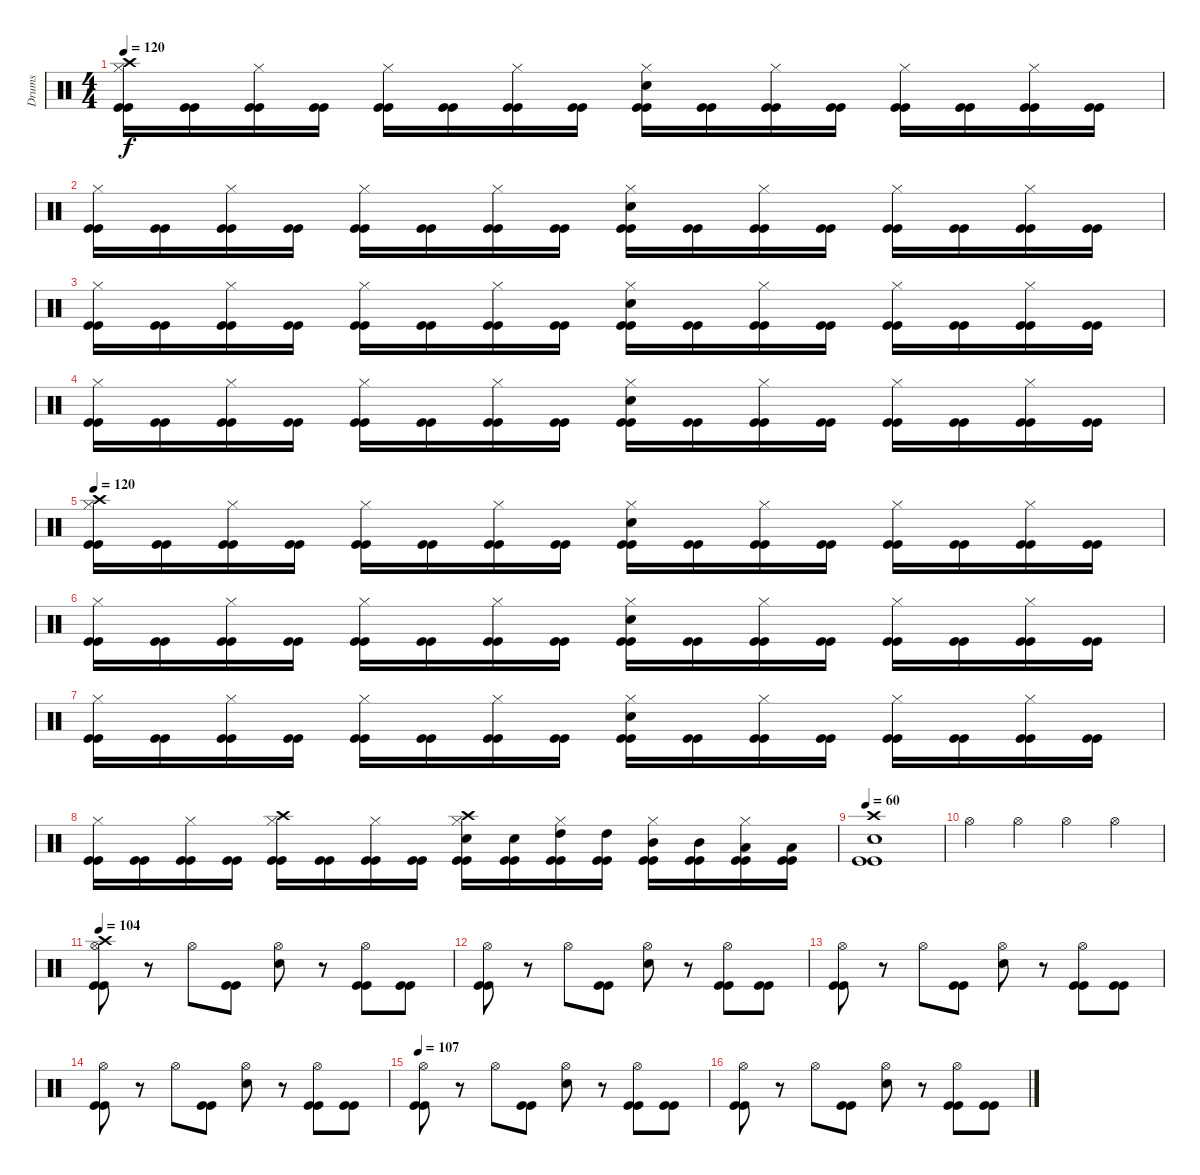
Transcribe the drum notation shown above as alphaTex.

\track ("Drums" "Drums") {instrument percussion}
\staff {score}
\articulation defaults
\ts (4 4)
\tempo 120
\clef neutral
\ks c
("Crash high (hit)" "Hi-Hat (closed)" "Kick (hit)" "Kick (hit)").16{dy f} ("Kick (hit)" "Kick (hit)").16 ("Hi-Hat (closed)" "Kick (hit)" "Kick (hit)").16 ("Kick (hit)" "Kick (hit)").16 ("Hi-Hat (closed)" "Kick (hit)" "Kick (hit)").16 ("Kick (hit)" "Kick (hit)").16 ("Hi-Hat (closed)" "Kick (hit)" "Kick (hit)").16 ("Kick (hit)" "Kick (hit)").16 ("Snare (hit) 2" "Hi-Hat (closed)" "Kick (hit)" "Kick (hit)").16 ("Kick (hit)" "Kick (hit)").16 ("Hi-Hat (closed)" "Kick (hit)" "Kick (hit)").16 ("Kick (hit)" "Kick (hit)").16 ("Hi-Hat (closed)" "Kick (hit)" "Kick (hit)").16 ("Kick (hit)" "Kick (hit)").16 ("Hi-Hat (closed)" "Kick (hit)" "Kick (hit)").16 ("Kick (hit)" "Kick (hit)").16 |
("Hi-Hat (closed)" "Kick (hit)" "Kick (hit)").16 ("Kick (hit)" "Kick (hit)").16 ("Hi-Hat (closed)" "Kick (hit)" "Kick (hit)").16 ("Kick (hit)" "Kick (hit)").16 ("Hi-Hat (closed)" "Kick (hit)" "Kick (hit)").16 ("Kick (hit)" "Kick (hit)").16 ("Hi-Hat (closed)" "Kick (hit)" "Kick (hit)").16 ("Kick (hit)" "Kick (hit)").16 ("Snare (hit) 2" "Hi-Hat (closed)" "Kick (hit)" "Kick (hit)").16 ("Kick (hit)" "Kick (hit)").16 ("Hi-Hat (closed)" "Kick (hit)" "Kick (hit)").16 ("Kick (hit)" "Kick (hit)").16 ("Hi-Hat (closed)" "Kick (hit)" "Kick (hit)").16 ("Kick (hit)" "Kick (hit)").16 ("Hi-Hat (closed)" "Kick (hit)" "Kick (hit)").16 ("Kick (hit)" "Kick (hit)").16 |
("Hi-Hat (closed)" "Kick (hit)" "Kick (hit)").16 ("Kick (hit)" "Kick (hit)").16 ("Hi-Hat (closed)" "Kick (hit)" "Kick (hit)").16 ("Kick (hit)" "Kick (hit)").16 ("Hi-Hat (closed)" "Kick (hit)" "Kick (hit)").16 ("Kick (hit)" "Kick (hit)").16 ("Hi-Hat (closed)" "Kick (hit)" "Kick (hit)").16 ("Kick (hit)" "Kick (hit)").16 ("Snare (hit) 2" "Hi-Hat (closed)" "Kick (hit)" "Kick (hit)").16 ("Kick (hit)" "Kick (hit)").16 ("Hi-Hat (closed)" "Kick (hit)" "Kick (hit)").16 ("Kick (hit)" "Kick (hit)").16 ("Hi-Hat (closed)" "Kick (hit)" "Kick (hit)").16 ("Kick (hit)" "Kick (hit)").16 ("Hi-Hat (closed)" "Kick (hit)" "Kick (hit)").16 ("Kick (hit)" "Kick (hit)").16 |
("Hi-Hat (closed)" "Kick (hit)" "Kick (hit)").16 ("Kick (hit)" "Kick (hit)").16 ("Hi-Hat (closed)" "Kick (hit)" "Kick (hit)").16 ("Kick (hit)" "Kick (hit)").16 ("Hi-Hat (closed)" "Kick (hit)" "Kick (hit)").16 ("Kick (hit)" "Kick (hit)").16 ("Hi-Hat (closed)" "Kick (hit)" "Kick (hit)").16 ("Kick (hit)" "Kick (hit)").16 ("Snare (hit) 2" "Hi-Hat (closed)" "Kick (hit)" "Kick (hit)").16 ("Kick (hit)" "Kick (hit)").16 ("Hi-Hat (closed)" "Kick (hit)" "Kick (hit)").16 ("Kick (hit)" "Kick (hit)").16 ("Hi-Hat (closed)" "Kick (hit)" "Kick (hit)").16 ("Kick (hit)" "Kick (hit)").16 ("Hi-Hat (closed)" "Kick (hit)" "Kick (hit)").16 ("Kick (hit)" "Kick (hit)").16 |
\tempo 120
("Crash high (hit)" "Hi-Hat (closed)" "Kick (hit)" "Kick (hit)").16 ("Kick (hit)" "Kick (hit)").16 ("Hi-Hat (closed)" "Kick (hit)" "Kick (hit)").16 ("Kick (hit)" "Kick (hit)").16 ("Hi-Hat (closed)" "Kick (hit)" "Kick (hit)").16 ("Kick (hit)" "Kick (hit)").16 ("Hi-Hat (closed)" "Kick (hit)" "Kick (hit)").16 ("Kick (hit)" "Kick (hit)").16 ("Snare (hit) 2" "Hi-Hat (closed)" "Kick (hit)" "Kick (hit)").16 ("Kick (hit)" "Kick (hit)").16 ("Hi-Hat (closed)" "Kick (hit)" "Kick (hit)").16 ("Kick (hit)" "Kick (hit)").16 ("Hi-Hat (closed)" "Kick (hit)" "Kick (hit)").16 ("Kick (hit)" "Kick (hit)").16 ("Hi-Hat (closed)" "Kick (hit)" "Kick (hit)").16 ("Kick (hit)" "Kick (hit)").16 |
("Hi-Hat (closed)" "Kick (hit)" "Kick (hit)").16 ("Kick (hit)" "Kick (hit)").16 ("Hi-Hat (closed)" "Kick (hit)" "Kick (hit)").16 ("Kick (hit)" "Kick (hit)").16 ("Hi-Hat (closed)" "Kick (hit)" "Kick (hit)").16 ("Kick (hit)" "Kick (hit)").16 ("Hi-Hat (closed)" "Kick (hit)" "Kick (hit)").16 ("Kick (hit)" "Kick (hit)").16 ("Snare (hit) 2" "Hi-Hat (closed)" "Kick (hit)" "Kick (hit)").16 ("Kick (hit)" "Kick (hit)").16 ("Hi-Hat (closed)" "Kick (hit)" "Kick (hit)").16 ("Kick (hit)" "Kick (hit)").16 ("Hi-Hat (closed)" "Kick (hit)" "Kick (hit)").16 ("Kick (hit)" "Kick (hit)").16 ("Hi-Hat (closed)" "Kick (hit)" "Kick (hit)").16 ("Kick (hit)" "Kick (hit)").16 |
("Hi-Hat (closed)" "Kick (hit)" "Kick (hit)").16 ("Kick (hit)" "Kick (hit)").16 ("Hi-Hat (closed)" "Kick (hit)" "Kick (hit)").16 ("Kick (hit)" "Kick (hit)").16 ("Hi-Hat (closed)" "Kick (hit)" "Kick (hit)").16 ("Kick (hit)" "Kick (hit)").16 ("Hi-Hat (closed)" "Kick (hit)" "Kick (hit)").16 ("Kick (hit)" "Kick (hit)").16 ("Snare (hit) 2" "Hi-Hat (closed)" "Kick (hit)" "Kick (hit)").16 ("Kick (hit)" "Kick (hit)").16 ("Hi-Hat (closed)" "Kick (hit)" "Kick (hit)").16 ("Kick (hit)" "Kick (hit)").16 ("Hi-Hat (closed)" "Kick (hit)" "Kick (hit)").16 ("Kick (hit)" "Kick (hit)").16 ("Hi-Hat (closed)" "Kick (hit)" "Kick (hit)").16 ("Kick (hit)" "Kick (hit)").16 |
("Hi-Hat (closed)" "Kick (hit)" "Kick (hit)").16 ("Kick (hit)" "Kick (hit)").16 ("Hi-Hat (closed)" "Kick (hit)" "Kick (hit)").16 ("Kick (hit)" "Kick (hit)").16 ("Crash high (hit)" "Hi-Hat (closed)" "Kick (hit)" "Kick (hit)").16 ("Kick (hit)" "Kick (hit)").16 ("Hi-Hat (closed)" "Kick (hit)" "Kick (hit)").16 ("Kick (hit)" "Kick (hit)").16 ("Crash high (hit)" "Snare (hit) 2" "Hi-Hat (closed)" "Kick (hit)" "Kick (hit)").16 ("Snare (hit) 2" "Kick (hit)" "Kick (hit)").16 ("High Tom (hit)" "Hi-Hat (closed)" "Kick (hit)" "Kick (hit)").16 ("High Tom (hit)" "Kick (hit)" "Kick (hit)").16 ("Mid Tom (hit)" "Hi-Hat (closed)" "Kick (hit)" "Kick (hit)").16 ("Mid Tom (hit)" "Kick (hit)" "Kick (hit)").16 ("Low Tom (hit)" "Hi-Hat (closed)" "Kick (hit)" "Kick (hit)").16 ("Low Tom (hit)" "Kick (hit)" "Kick (hit)").16 |
\tempo 60
("Crash high (hit)" "Snare (hit) 2" "Kick (hit)" "Kick (hit)").1 |
"Hi-Hat (open)".4 "Hi-Hat (open)".4 "Hi-Hat (open)".4 "Hi-Hat (open)".4 |
\tempo 104
("Crash high (hit)" "Hi-Hat (open)" "Kick (hit)" "Kick (hit)").8 r.8 "Hi-Hat (open)".8 ("Kick (hit)" "Kick (hit)").8 ("Snare (hit) 2" "Hi-Hat (open)").8 r.8 ("Hi-Hat (open)" "Kick (hit)" "Kick (hit)").8 ("Kick (hit)" "Kick (hit)").8 |
("Hi-Hat (open)" "Kick (hit)" "Kick (hit)").8 r.8 "Hi-Hat (open)".8 ("Kick (hit)" "Kick (hit)").8 ("Snare (hit) 2" "Hi-Hat (open)").8 r.8 ("Hi-Hat (open)" "Kick (hit)" "Kick (hit)").8 ("Kick (hit)" "Kick (hit)").8 |
("Hi-Hat (open)" "Kick (hit)" "Kick (hit)").8 r.8 "Hi-Hat (open)".8 ("Kick (hit)" "Kick (hit)").8 ("Snare (hit) 2" "Hi-Hat (open)").8 r.8 ("Hi-Hat (open)" "Kick (hit)" "Kick (hit)").8 ("Kick (hit)" "Kick (hit)").8 |
("Hi-Hat (open)" "Kick (hit)" "Kick (hit)").8 r.8 "Hi-Hat (open)".8 ("Kick (hit)" "Kick (hit)").8 ("Snare (hit) 2" "Hi-Hat (open)").8 r.8 ("Hi-Hat (open)" "Kick (hit)" "Kick (hit)").8 ("Kick (hit)" "Kick (hit)").8 |
\tempo 107
("Hi-Hat (open)" "Kick (hit)" "Kick (hit)").8 r.8 "Hi-Hat (open)".8 ("Kick (hit)" "Kick (hit)").8 ("Snare (hit) 2" "Hi-Hat (open)").8 r.8 ("Hi-Hat (open)" "Kick (hit)" "Kick (hit)").8 ("Kick (hit)" "Kick (hit)").8 |
("Hi-Hat (open)" "Kick (hit)" "Kick (hit)").8 r.8 "Hi-Hat (open)".8 ("Kick (hit)" "Kick (hit)").8 ("Snare (hit) 2" "Hi-Hat (open)").8 r.8 ("Hi-Hat (open)" "Kick (hit)" "Kick (hit)").8 ("Kick (hit)" "Kick (hit)").8
